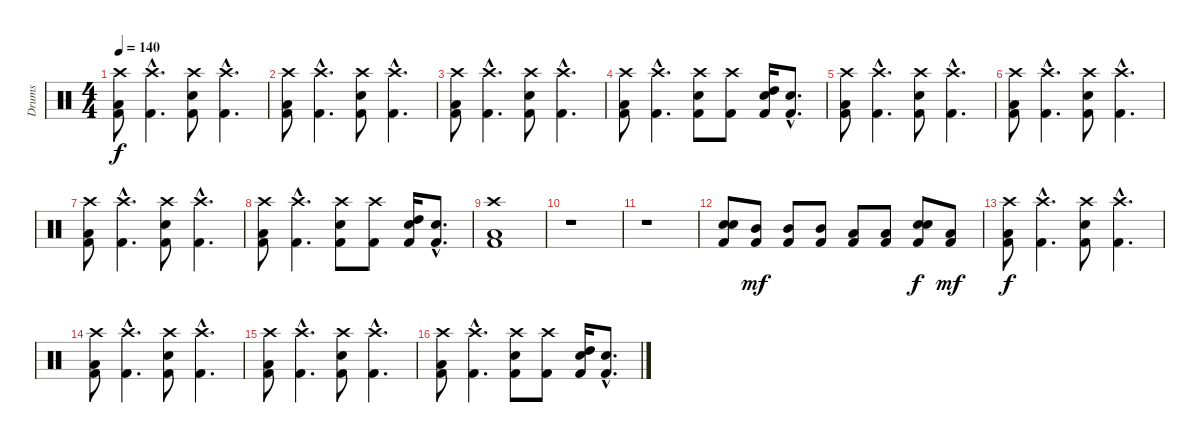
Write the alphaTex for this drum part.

\track ("Drums" "Drums") {instrument percussion}
\staff {score}
\articulation defaults
\ts (4 4)
\tempo 140
\clef neutral
\ks c
("Crash high (hit)" "Low Tom (hit)" "Kick (hit) 2").8{dy f} ("Crash high (hit)"{hac} "Kick (hit) 2"{hac}).4{d} ("Crash high (hit)" "Snare (hit) 2" "Kick (hit) 2").8 ("Crash high (hit)"{hac} "Kick (hit) 2"{hac}).4{d} |
("Crash high (hit)" "Low Tom (hit)" "Kick (hit) 2").8 ("Crash high (hit)"{hac} "Kick (hit) 2"{hac}).4{d} ("Crash high (hit)" "Snare (hit) 2" "Kick (hit) 2").8 ("Crash high (hit)"{hac} "Kick (hit) 2"{hac}).4{d} |
("Crash high (hit)" "Low Tom (hit)" "Kick (hit) 2").8 ("Crash high (hit)"{hac} "Kick (hit) 2"{hac}).4{d} ("Crash high (hit)" "Snare (hit) 2" "Kick (hit) 2").8 ("Crash high (hit)"{hac} "Kick (hit) 2"{hac}).4{d} |
("Crash high (hit)" "Low Tom (hit)" "Kick (hit) 2").8 ("Crash high (hit)"{hac} "Kick (hit) 2"{hac}).4{d} ("Crash high (hit)" "Snare (hit) 2" "Kick (hit) 2").8 ("Crash high (hit)" "Kick (hit) 2").8 ("High Tom (hit)" "Snare (hit) 2" "Kick (hit) 2").16 ("Snare (hit) 2"{hac} "Kick (hit) 2"{hac}).8{d} |
("Crash high (hit)" "Low Tom (hit)" "Kick (hit) 2").8 ("Crash high (hit)"{hac} "Kick (hit) 2"{hac}).4{d} ("Crash high (hit)" "Snare (hit) 2" "Kick (hit) 2").8 ("Crash high (hit)"{hac} "Kick (hit) 2"{hac}).4{d} |
("Crash high (hit)" "Low Tom (hit)" "Kick (hit) 2").8 ("Crash high (hit)"{hac} "Kick (hit) 2"{hac}).4{d} ("Crash high (hit)" "Snare (hit) 2" "Kick (hit) 2").8 ("Crash high (hit)"{hac} "Kick (hit) 2"{hac}).4{d} |
("Crash high (hit)" "Low Tom (hit)" "Kick (hit) 2").8 ("Crash high (hit)"{hac} "Kick (hit) 2"{hac}).4{d} ("Crash high (hit)" "Snare (hit) 2" "Kick (hit) 2").8 ("Crash high (hit)"{hac} "Kick (hit) 2"{hac}).4{d} |
("Crash high (hit)" "Low Tom (hit)" "Kick (hit) 2").8 ("Crash high (hit)"{hac} "Kick (hit) 2"{hac}).4{d} ("Crash high (hit)" "Snare (hit) 2" "Kick (hit) 2").8 ("Crash high (hit)" "Kick (hit) 2").8 ("High Tom (hit)" "Snare (hit) 2" "Kick (hit) 2").16 ("Snare (hit) 2"{hac} "Kick (hit) 2"{hac}).8{d} |
("Crash high (hit)" "Low Tom (hit)" "Kick (hit) 2").1 |
r.1 |
r.1 |
("Snare (hit) 2" "Snare (hit) 2" "Kick (hit) 2").8 ("Mid Tom (hit)" "Kick (hit) 2").8{dy mf} ("Mid Tom (hit)" "Kick (hit) 2").8 ("Mid Tom (hit)" "Kick (hit) 2").8 ("Low Tom (hit)" "Kick (hit) 2").8 ("Low Tom (hit)" "Kick (hit) 2").8 ("Snare (hit) 2" "Snare (hit) 2" "Kick (hit) 2").8{dy f} ("Low Tom (hit)" "Kick (hit) 2").8{dy mf} |
("Crash high (hit)" "Low Tom (hit)" "Kick (hit) 2").8{dy f} ("Crash high (hit)"{hac} "Kick (hit) 2"{hac}).4{d} ("Crash high (hit)" "Snare (hit) 2" "Kick (hit) 2").8 ("Crash high (hit)"{hac} "Kick (hit) 2"{hac}).4{d} |
("Crash high (hit)" "Low Tom (hit)" "Kick (hit) 2").8 ("Crash high (hit)"{hac} "Kick (hit) 2"{hac}).4{d} ("Crash high (hit)" "Snare (hit) 2" "Kick (hit) 2").8 ("Crash high (hit)"{hac} "Kick (hit) 2"{hac}).4{d} |
("Crash high (hit)" "Low Tom (hit)" "Kick (hit) 2").8 ("Crash high (hit)"{hac} "Kick (hit) 2"{hac}).4{d} ("Crash high (hit)" "Snare (hit) 2" "Kick (hit) 2").8 ("Crash high (hit)"{hac} "Kick (hit) 2"{hac}).4{d} |
("Crash high (hit)" "Low Tom (hit)" "Kick (hit) 2").8 ("Crash high (hit)"{hac} "Kick (hit) 2"{hac}).4{d} ("Crash high (hit)" "Snare (hit) 2" "Kick (hit) 2").8 ("Crash high (hit)" "Kick (hit) 2").8 ("High Tom (hit)" "Snare (hit) 2" "Kick (hit) 2").16 ("Snare (hit) 2"{hac} "Kick (hit) 2"{hac}).8{d}
